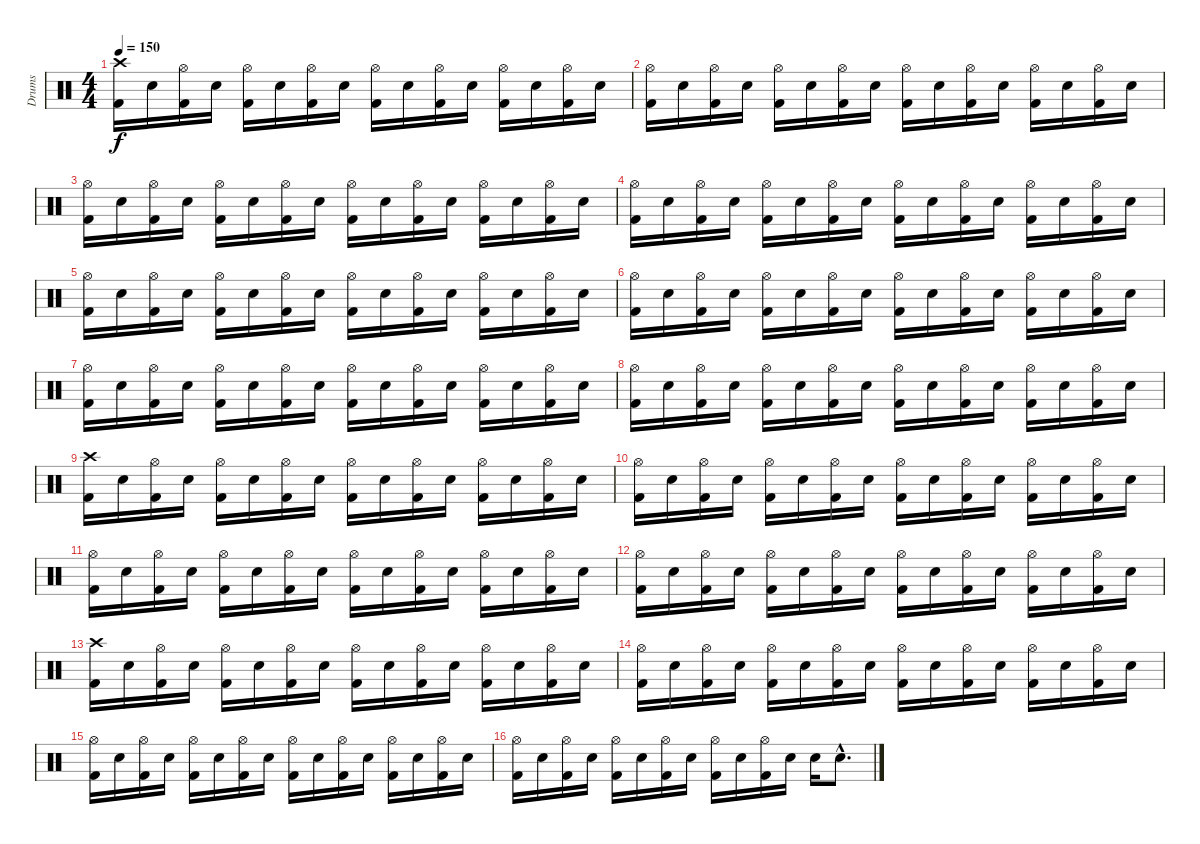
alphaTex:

\track ("Drums" "Drums") {instrument percussion}
\staff {score}
\articulation defaults
\ts (4 4)
\tempo 150
\clef neutral
\ks c
("Kick (hit) 2" "Crash high (hit)").16{dy f} "Electric Snare (hit)".16 ("Kick (hit) 2" "Hi-Hat (open)").16 "Electric Snare (hit)".16 ("Kick (hit) 2" "Hi-Hat (open)").16 "Electric Snare (hit)".16 ("Kick (hit) 2" "Hi-Hat (open)").16 "Electric Snare (hit)".16 ("Kick (hit) 2" "Hi-Hat (open)").16 "Electric Snare (hit)".16 ("Kick (hit) 2" "Hi-Hat (open)").16 "Electric Snare (hit)".16 ("Kick (hit) 2" "Hi-Hat (open)").16 "Electric Snare (hit)".16 ("Kick (hit) 2" "Hi-Hat (open)").16 "Electric Snare (hit)".16 |
("Kick (hit) 2" "Hi-Hat (open)").16 "Electric Snare (hit)".16 ("Kick (hit) 2" "Hi-Hat (open)").16 "Electric Snare (hit)".16 ("Kick (hit) 2" "Hi-Hat (open)").16 "Electric Snare (hit)".16 ("Kick (hit) 2" "Hi-Hat (open)").16 "Electric Snare (hit)".16 ("Kick (hit) 2" "Hi-Hat (open)").16 "Electric Snare (hit)".16 ("Kick (hit) 2" "Hi-Hat (open)").16 "Electric Snare (hit)".16 ("Kick (hit) 2" "Hi-Hat (open)").16 "Electric Snare (hit)".16 ("Kick (hit) 2" "Hi-Hat (open)").16 "Electric Snare (hit)".16 |
("Kick (hit) 2" "Hi-Hat (open)").16 "Electric Snare (hit)".16 ("Kick (hit) 2" "Hi-Hat (open)").16 "Electric Snare (hit)".16 ("Kick (hit) 2" "Hi-Hat (open)").16 "Electric Snare (hit)".16 ("Kick (hit) 2" "Hi-Hat (open)").16 "Electric Snare (hit)".16 ("Kick (hit) 2" "Hi-Hat (open)").16 "Electric Snare (hit)".16 ("Kick (hit) 2" "Hi-Hat (open)").16 "Electric Snare (hit)".16 ("Kick (hit) 2" "Hi-Hat (open)").16 "Electric Snare (hit)".16 ("Kick (hit) 2" "Hi-Hat (open)").16 "Electric Snare (hit)".16 |
("Kick (hit) 2" "Hi-Hat (open)").16 "Electric Snare (hit)".16 ("Kick (hit) 2" "Hi-Hat (open)").16 "Electric Snare (hit)".16 ("Kick (hit) 2" "Hi-Hat (open)").16 "Electric Snare (hit)".16 ("Kick (hit) 2" "Hi-Hat (open)").16 "Electric Snare (hit)".16 ("Kick (hit) 2" "Hi-Hat (open)").16 "Electric Snare (hit)".16 ("Kick (hit) 2" "Hi-Hat (open)").16 "Electric Snare (hit)".16 ("Kick (hit) 2" "Hi-Hat (open)").16 "Electric Snare (hit)".16 ("Kick (hit) 2" "Hi-Hat (open)").16 "Electric Snare (hit)".16 |
("Kick (hit) 2" "Hi-Hat (open)").16 "Electric Snare (hit)".16 ("Kick (hit) 2" "Hi-Hat (open)").16 "Electric Snare (hit)".16 ("Kick (hit) 2" "Hi-Hat (open)").16 "Electric Snare (hit)".16 ("Kick (hit) 2" "Hi-Hat (open)").16 "Electric Snare (hit)".16 ("Kick (hit) 2" "Hi-Hat (open)").16 "Electric Snare (hit)".16 ("Kick (hit) 2" "Hi-Hat (open)").16 "Electric Snare (hit)".16 ("Kick (hit) 2" "Hi-Hat (open)").16 "Electric Snare (hit)".16 ("Kick (hit) 2" "Hi-Hat (open)").16 "Electric Snare (hit)".16 |
("Kick (hit) 2" "Hi-Hat (open)").16 "Electric Snare (hit)".16 ("Kick (hit) 2" "Hi-Hat (open)").16 "Electric Snare (hit)".16 ("Kick (hit) 2" "Hi-Hat (open)").16 "Electric Snare (hit)".16 ("Kick (hit) 2" "Hi-Hat (open)").16 "Electric Snare (hit)".16 ("Kick (hit) 2" "Hi-Hat (open)").16 "Electric Snare (hit)".16 ("Kick (hit) 2" "Hi-Hat (open)").16 "Electric Snare (hit)".16 ("Kick (hit) 2" "Hi-Hat (open)").16 "Electric Snare (hit)".16 ("Kick (hit) 2" "Hi-Hat (open)").16 "Electric Snare (hit)".16 |
("Kick (hit) 2" "Hi-Hat (open)").16 "Electric Snare (hit)".16 ("Kick (hit) 2" "Hi-Hat (open)").16 "Electric Snare (hit)".16 ("Kick (hit) 2" "Hi-Hat (open)").16 "Electric Snare (hit)".16 ("Kick (hit) 2" "Hi-Hat (open)").16 "Electric Snare (hit)".16 ("Kick (hit) 2" "Hi-Hat (open)").16 "Electric Snare (hit)".16 ("Kick (hit) 2" "Hi-Hat (open)").16 "Electric Snare (hit)".16 ("Kick (hit) 2" "Hi-Hat (open)").16 "Electric Snare (hit)".16 ("Kick (hit) 2" "Hi-Hat (open)").16 "Electric Snare (hit)".16 |
("Kick (hit) 2" "Hi-Hat (open)").16 "Electric Snare (hit)".16 ("Kick (hit) 2" "Hi-Hat (open)").16 "Electric Snare (hit)".16 ("Kick (hit) 2" "Hi-Hat (open)").16 "Electric Snare (hit)".16 ("Kick (hit) 2" "Hi-Hat (open)").16 "Electric Snare (hit)".16 ("Kick (hit) 2" "Hi-Hat (open)").16 "Electric Snare (hit)".16 ("Kick (hit) 2" "Hi-Hat (open)").16 "Electric Snare (hit)".16 ("Kick (hit) 2" "Hi-Hat (open)").16 "Electric Snare (hit)".16 ("Kick (hit) 2" "Hi-Hat (open)").16 "Electric Snare (hit)".16 |
("Kick (hit) 2" "Crash high (hit)").16 "Electric Snare (hit)".16 ("Kick (hit) 2" "Hi-Hat (open)").16 "Electric Snare (hit)".16 ("Kick (hit) 2" "Hi-Hat (open)").16 "Electric Snare (hit)".16 ("Kick (hit) 2" "Hi-Hat (open)").16 "Electric Snare (hit)".16 ("Kick (hit) 2" "Hi-Hat (open)").16 "Electric Snare (hit)".16 ("Kick (hit) 2" "Hi-Hat (open)").16 "Electric Snare (hit)".16 ("Kick (hit) 2" "Hi-Hat (open)").16 "Electric Snare (hit)".16 ("Kick (hit) 2" "Hi-Hat (open)").16 "Electric Snare (hit)".16 |
("Kick (hit) 2" "Hi-Hat (open)").16 "Electric Snare (hit)".16 ("Kick (hit) 2" "Hi-Hat (open)").16 "Electric Snare (hit)".16 ("Kick (hit) 2" "Hi-Hat (open)").16 "Electric Snare (hit)".16 ("Kick (hit) 2" "Hi-Hat (open)").16 "Electric Snare (hit)".16 ("Kick (hit) 2" "Hi-Hat (open)").16 "Electric Snare (hit)".16 ("Kick (hit) 2" "Hi-Hat (open)").16 "Electric Snare (hit)".16 ("Kick (hit) 2" "Hi-Hat (open)").16 "Electric Snare (hit)".16 ("Kick (hit) 2" "Hi-Hat (open)").16 "Electric Snare (hit)".16 |
("Kick (hit) 2" "Hi-Hat (open)").16 "Electric Snare (hit)".16 ("Kick (hit) 2" "Hi-Hat (open)").16 "Electric Snare (hit)".16 ("Kick (hit) 2" "Hi-Hat (open)").16 "Electric Snare (hit)".16 ("Kick (hit) 2" "Hi-Hat (open)").16 "Electric Snare (hit)".16 ("Kick (hit) 2" "Hi-Hat (open)").16 "Electric Snare (hit)".16 ("Kick (hit) 2" "Hi-Hat (open)").16 "Electric Snare (hit)".16 ("Kick (hit) 2" "Hi-Hat (open)").16 "Electric Snare (hit)".16 ("Kick (hit) 2" "Hi-Hat (open)").16 "Electric Snare (hit)".16 |
("Kick (hit) 2" "Hi-Hat (open)").16 "Electric Snare (hit)".16 ("Kick (hit) 2" "Hi-Hat (open)").16 "Electric Snare (hit)".16 ("Kick (hit) 2" "Hi-Hat (open)").16 "Electric Snare (hit)".16 ("Kick (hit) 2" "Hi-Hat (open)").16 "Electric Snare (hit)".16 ("Kick (hit) 2" "Hi-Hat (open)").16 "Electric Snare (hit)".16 ("Kick (hit) 2" "Hi-Hat (open)").16 "Electric Snare (hit)".16 ("Kick (hit) 2" "Hi-Hat (open)").16 "Electric Snare (hit)".16 ("Kick (hit) 2" "Hi-Hat (open)").16 "Electric Snare (hit)".16 |
("Kick (hit) 2" "Crash high (hit)").16 "Electric Snare (hit)".16 ("Kick (hit) 2" "Hi-Hat (open)").16 "Electric Snare (hit)".16 ("Kick (hit) 2" "Hi-Hat (open)").16 "Electric Snare (hit)".16 ("Kick (hit) 2" "Hi-Hat (open)").16 "Electric Snare (hit)".16 ("Kick (hit) 2" "Hi-Hat (open)").16 "Electric Snare (hit)".16 ("Kick (hit) 2" "Hi-Hat (open)").16 "Electric Snare (hit)".16 ("Kick (hit) 2" "Hi-Hat (open)").16 "Electric Snare (hit)".16 ("Kick (hit) 2" "Hi-Hat (open)").16 "Electric Snare (hit)".16 |
("Kick (hit) 2" "Hi-Hat (open)").16 "Electric Snare (hit)".16 ("Kick (hit) 2" "Hi-Hat (open)").16 "Electric Snare (hit)".16 ("Kick (hit) 2" "Hi-Hat (open)").16 "Electric Snare (hit)".16 ("Kick (hit) 2" "Hi-Hat (open)").16 "Electric Snare (hit)".16 ("Kick (hit) 2" "Hi-Hat (open)").16 "Electric Snare (hit)".16 ("Kick (hit) 2" "Hi-Hat (open)").16 "Electric Snare (hit)".16 ("Kick (hit) 2" "Hi-Hat (open)").16 "Electric Snare (hit)".16 ("Kick (hit) 2" "Hi-Hat (open)").16 "Electric Snare (hit)".16 |
("Kick (hit) 2" "Hi-Hat (open)").16 "Electric Snare (hit)".16 ("Kick (hit) 2" "Hi-Hat (open)").16 "Electric Snare (hit)".16 ("Kick (hit) 2" "Hi-Hat (open)").16 "Electric Snare (hit)".16 ("Kick (hit) 2" "Hi-Hat (open)").16 "Electric Snare (hit)".16 ("Kick (hit) 2" "Hi-Hat (open)").16 "Electric Snare (hit)".16 ("Kick (hit) 2" "Hi-Hat (open)").16 "Electric Snare (hit)".16 ("Kick (hit) 2" "Hi-Hat (open)").16 "Electric Snare (hit)".16 ("Kick (hit) 2" "Hi-Hat (open)").16 "Electric Snare (hit)".16 |
("Kick (hit) 2" "Hi-Hat (open)").16 "Electric Snare (hit)".16 ("Kick (hit) 2" "Hi-Hat (open)").16 "Electric Snare (hit)".16 ("Kick (hit) 2" "Hi-Hat (open)").16 "Electric Snare (hit)".16 ("Kick (hit) 2" "Hi-Hat (open)").16 "Electric Snare (hit)".16 ("Kick (hit) 2" "Hi-Hat (open)").16 "Electric Snare (hit)".16 ("Kick (hit) 2" "Hi-Hat (open)").16 "Electric Snare (hit)".16 "Electric Snare (hit)".16 "Electric Snare (hit)"{hac}.8{d}
